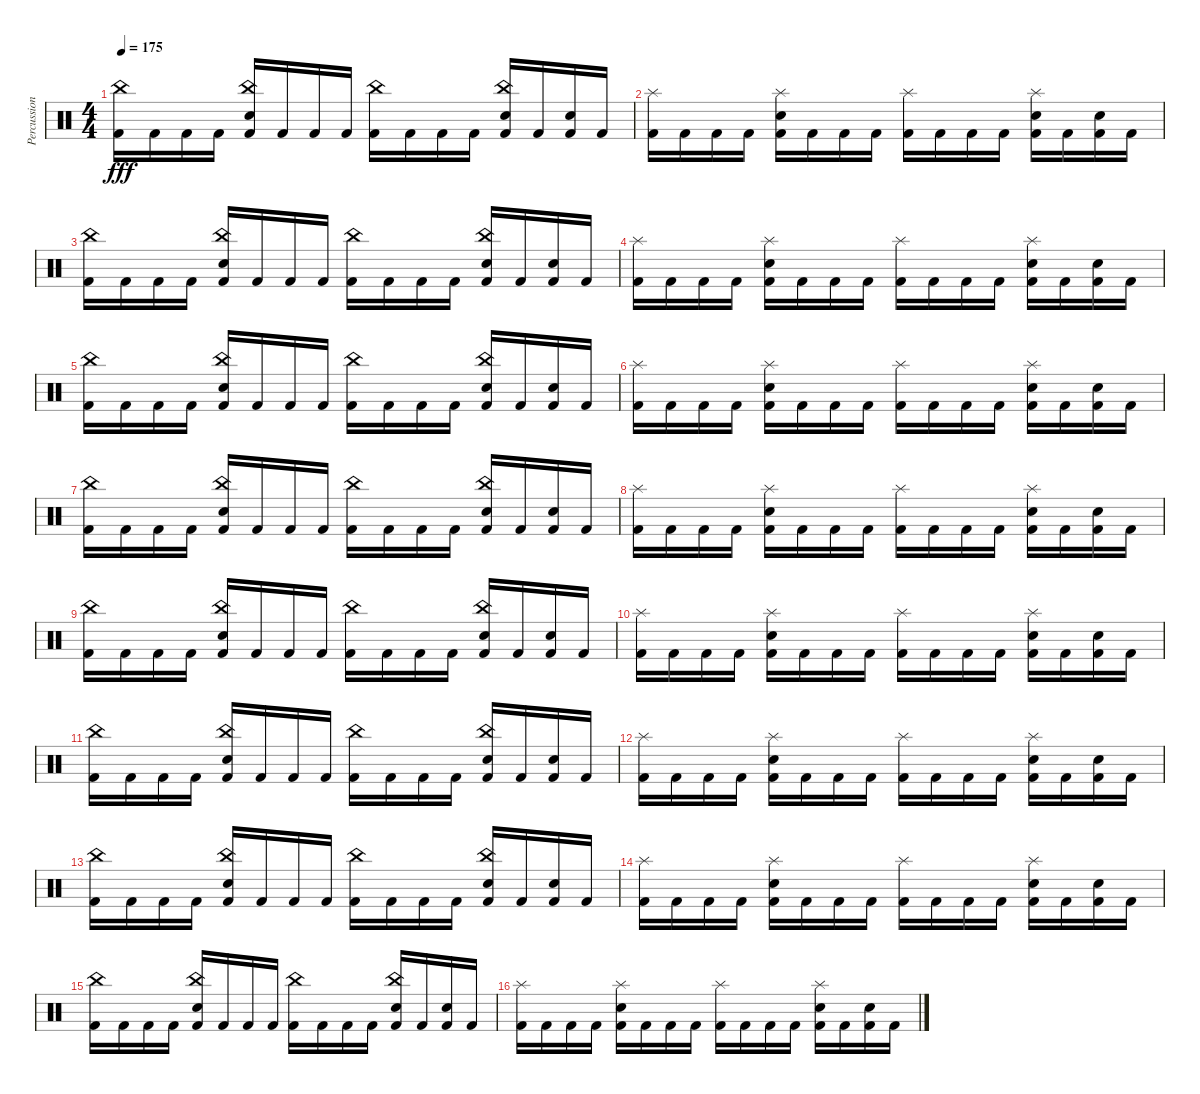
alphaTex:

\track ("Percussion" "Percussion") {instrument percussion}
\staff {score}
\articulation defaults
\ts (4 4)
\tempo 175
\clef neutral
\ks c
("Kick (hit) 2" "China (hit)").16{dy fff} "Kick (hit) 2".16 "Kick (hit) 2".16 "Kick (hit) 2".16 ("Kick (hit) 2" "Electric Snare (hit)" "China (hit)").16 "Kick (hit) 2".16 "Kick (hit) 2".16 "Kick (hit) 2".16 ("Kick (hit) 2" "China (hit)").16 "Kick (hit) 2".16 "Kick (hit) 2".16 "Kick (hit) 2".16 ("Kick (hit) 2" "Electric Snare (hit)" "China (hit)").16 "Kick (hit) 2".16 ("Kick (hit) 2" "Electric Snare (hit)").16 "Kick (hit) 2".16 |
("Kick (hit) 2" "Splash (hit)").16 "Kick (hit) 2".16 "Kick (hit) 2".16 "Kick (hit) 2".16 ("Kick (hit) 2" "Electric Snare (hit)" "Splash (hit)").16 "Kick (hit) 2".16 "Kick (hit) 2".16 "Kick (hit) 2".16 ("Kick (hit) 2" "Splash (hit)").16 "Kick (hit) 2".16 "Kick (hit) 2".16 "Kick (hit) 2".16 ("Kick (hit) 2" "Electric Snare (hit)" "Splash (hit)").16 "Kick (hit) 2".16 ("Kick (hit) 2" "Electric Snare (hit)").16 "Kick (hit) 2".16 |
("Kick (hit) 2" "China (hit)").16 "Kick (hit) 2".16 "Kick (hit) 2".16 "Kick (hit) 2".16 ("Kick (hit) 2" "Electric Snare (hit)" "China (hit)").16 "Kick (hit) 2".16 "Kick (hit) 2".16 "Kick (hit) 2".16 ("Kick (hit) 2" "China (hit)").16 "Kick (hit) 2".16 "Kick (hit) 2".16 "Kick (hit) 2".16 ("Kick (hit) 2" "Electric Snare (hit)" "China (hit)").16 "Kick (hit) 2".16 ("Kick (hit) 2" "Electric Snare (hit)").16 "Kick (hit) 2".16 |
("Kick (hit) 2" "Splash (hit)").16 "Kick (hit) 2".16 "Kick (hit) 2".16 "Kick (hit) 2".16 ("Kick (hit) 2" "Electric Snare (hit)" "Splash (hit)").16 "Kick (hit) 2".16 "Kick (hit) 2".16 "Kick (hit) 2".16 ("Kick (hit) 2" "Splash (hit)").16 "Kick (hit) 2".16 "Kick (hit) 2".16 "Kick (hit) 2".16 ("Kick (hit) 2" "Electric Snare (hit)" "Splash (hit)").16 "Kick (hit) 2".16 ("Kick (hit) 2" "Electric Snare (hit)").16 "Kick (hit) 2".16 |
("Kick (hit) 2" "China (hit)").16 "Kick (hit) 2".16 "Kick (hit) 2".16 "Kick (hit) 2".16 ("Kick (hit) 2" "Electric Snare (hit)" "China (hit)").16 "Kick (hit) 2".16 "Kick (hit) 2".16 "Kick (hit) 2".16 ("Kick (hit) 2" "China (hit)").16 "Kick (hit) 2".16 "Kick (hit) 2".16 "Kick (hit) 2".16 ("Kick (hit) 2" "Electric Snare (hit)" "China (hit)").16 "Kick (hit) 2".16 ("Kick (hit) 2" "Electric Snare (hit)").16 "Kick (hit) 2".16 |
("Kick (hit) 2" "Splash (hit)").16 "Kick (hit) 2".16 "Kick (hit) 2".16 "Kick (hit) 2".16 ("Kick (hit) 2" "Electric Snare (hit)" "Splash (hit)").16 "Kick (hit) 2".16 "Kick (hit) 2".16 "Kick (hit) 2".16 ("Kick (hit) 2" "Splash (hit)").16 "Kick (hit) 2".16 "Kick (hit) 2".16 "Kick (hit) 2".16 ("Kick (hit) 2" "Electric Snare (hit)" "Splash (hit)").16 "Kick (hit) 2".16 ("Kick (hit) 2" "Electric Snare (hit)").16 "Kick (hit) 2".16 |
("Kick (hit) 2" "China (hit)").16 "Kick (hit) 2".16 "Kick (hit) 2".16 "Kick (hit) 2".16 ("Kick (hit) 2" "Electric Snare (hit)" "China (hit)").16 "Kick (hit) 2".16 "Kick (hit) 2".16 "Kick (hit) 2".16 ("Kick (hit) 2" "China (hit)").16 "Kick (hit) 2".16 "Kick (hit) 2".16 "Kick (hit) 2".16 ("Kick (hit) 2" "Electric Snare (hit)" "China (hit)").16 "Kick (hit) 2".16 ("Kick (hit) 2" "Electric Snare (hit)").16 "Kick (hit) 2".16 |
("Kick (hit) 2" "Splash (hit)").16 "Kick (hit) 2".16 "Kick (hit) 2".16 "Kick (hit) 2".16 ("Kick (hit) 2" "Electric Snare (hit)" "Splash (hit)").16 "Kick (hit) 2".16 "Kick (hit) 2".16 "Kick (hit) 2".16 ("Kick (hit) 2" "Splash (hit)").16 "Kick (hit) 2".16 "Kick (hit) 2".16 "Kick (hit) 2".16 ("Kick (hit) 2" "Electric Snare (hit)" "Splash (hit)").16 "Kick (hit) 2".16 ("Kick (hit) 2" "Electric Snare (hit)").16 "Kick (hit) 2".16 |
("Kick (hit) 2" "China (hit)").16 "Kick (hit) 2".16 "Kick (hit) 2".16 "Kick (hit) 2".16 ("Kick (hit) 2" "Electric Snare (hit)" "China (hit)").16 "Kick (hit) 2".16 "Kick (hit) 2".16 "Kick (hit) 2".16 ("Kick (hit) 2" "China (hit)").16 "Kick (hit) 2".16 "Kick (hit) 2".16 "Kick (hit) 2".16 ("Kick (hit) 2" "Electric Snare (hit)" "China (hit)").16 "Kick (hit) 2".16 ("Kick (hit) 2" "Electric Snare (hit)").16 "Kick (hit) 2".16 |
("Kick (hit) 2" "Splash (hit)").16 "Kick (hit) 2".16 "Kick (hit) 2".16 "Kick (hit) 2".16 ("Kick (hit) 2" "Electric Snare (hit)" "Splash (hit)").16 "Kick (hit) 2".16 "Kick (hit) 2".16 "Kick (hit) 2".16 ("Kick (hit) 2" "Splash (hit)").16 "Kick (hit) 2".16 "Kick (hit) 2".16 "Kick (hit) 2".16 ("Kick (hit) 2" "Electric Snare (hit)" "Splash (hit)").16 "Kick (hit) 2".16 ("Kick (hit) 2" "Electric Snare (hit)").16 "Kick (hit) 2".16 |
("Kick (hit) 2" "China (hit)").16 "Kick (hit) 2".16 "Kick (hit) 2".16 "Kick (hit) 2".16 ("Kick (hit) 2" "Electric Snare (hit)" "China (hit)").16 "Kick (hit) 2".16 "Kick (hit) 2".16 "Kick (hit) 2".16 ("Kick (hit) 2" "China (hit)").16 "Kick (hit) 2".16 "Kick (hit) 2".16 "Kick (hit) 2".16 ("Kick (hit) 2" "Electric Snare (hit)" "China (hit)").16 "Kick (hit) 2".16 ("Kick (hit) 2" "Electric Snare (hit)").16 "Kick (hit) 2".16 |
("Kick (hit) 2" "Splash (hit)").16 "Kick (hit) 2".16 "Kick (hit) 2".16 "Kick (hit) 2".16 ("Kick (hit) 2" "Electric Snare (hit)" "Splash (hit)").16 "Kick (hit) 2".16 "Kick (hit) 2".16 "Kick (hit) 2".16 ("Kick (hit) 2" "Splash (hit)").16 "Kick (hit) 2".16 "Kick (hit) 2".16 "Kick (hit) 2".16 ("Kick (hit) 2" "Electric Snare (hit)" "Splash (hit)").16 "Kick (hit) 2".16 ("Kick (hit) 2" "Electric Snare (hit)").16 "Kick (hit) 2".16 |
("Kick (hit) 2" "China (hit)").16 "Kick (hit) 2".16 "Kick (hit) 2".16 "Kick (hit) 2".16 ("Kick (hit) 2" "Electric Snare (hit)" "China (hit)").16 "Kick (hit) 2".16 "Kick (hit) 2".16 "Kick (hit) 2".16 ("Kick (hit) 2" "China (hit)").16 "Kick (hit) 2".16 "Kick (hit) 2".16 "Kick (hit) 2".16 ("Kick (hit) 2" "Electric Snare (hit)" "China (hit)").16 "Kick (hit) 2".16 ("Kick (hit) 2" "Electric Snare (hit)").16 "Kick (hit) 2".16 |
("Kick (hit) 2" "Splash (hit)").16 "Kick (hit) 2".16 "Kick (hit) 2".16 "Kick (hit) 2".16 ("Kick (hit) 2" "Electric Snare (hit)" "Splash (hit)").16 "Kick (hit) 2".16 "Kick (hit) 2".16 "Kick (hit) 2".16 ("Kick (hit) 2" "Splash (hit)").16 "Kick (hit) 2".16 "Kick (hit) 2".16 "Kick (hit) 2".16 ("Kick (hit) 2" "Electric Snare (hit)" "Splash (hit)").16 "Kick (hit) 2".16 ("Kick (hit) 2" "Electric Snare (hit)").16 "Kick (hit) 2".16 |
("Kick (hit) 2" "China (hit)").16 "Kick (hit) 2".16 "Kick (hit) 2".16 "Kick (hit) 2".16 ("Kick (hit) 2" "Electric Snare (hit)" "China (hit)").16 "Kick (hit) 2".16 "Kick (hit) 2".16 "Kick (hit) 2".16 ("Kick (hit) 2" "China (hit)").16 "Kick (hit) 2".16 "Kick (hit) 2".16 "Kick (hit) 2".16 ("Kick (hit) 2" "Electric Snare (hit)" "China (hit)").16 "Kick (hit) 2".16 ("Kick (hit) 2" "Electric Snare (hit)").16 "Kick (hit) 2".16 |
("Kick (hit) 2" "Splash (hit)").16 "Kick (hit) 2".16 "Kick (hit) 2".16 "Kick (hit) 2".16 ("Kick (hit) 2" "Electric Snare (hit)" "Splash (hit)").16 "Kick (hit) 2".16 "Kick (hit) 2".16 "Kick (hit) 2".16 ("Kick (hit) 2" "Splash (hit)").16 "Kick (hit) 2".16 "Kick (hit) 2".16 "Kick (hit) 2".16 ("Kick (hit) 2" "Electric Snare (hit)" "Splash (hit)").16 "Kick (hit) 2".16 ("Kick (hit) 2" "Electric Snare (hit)").16 "Kick (hit) 2".16
